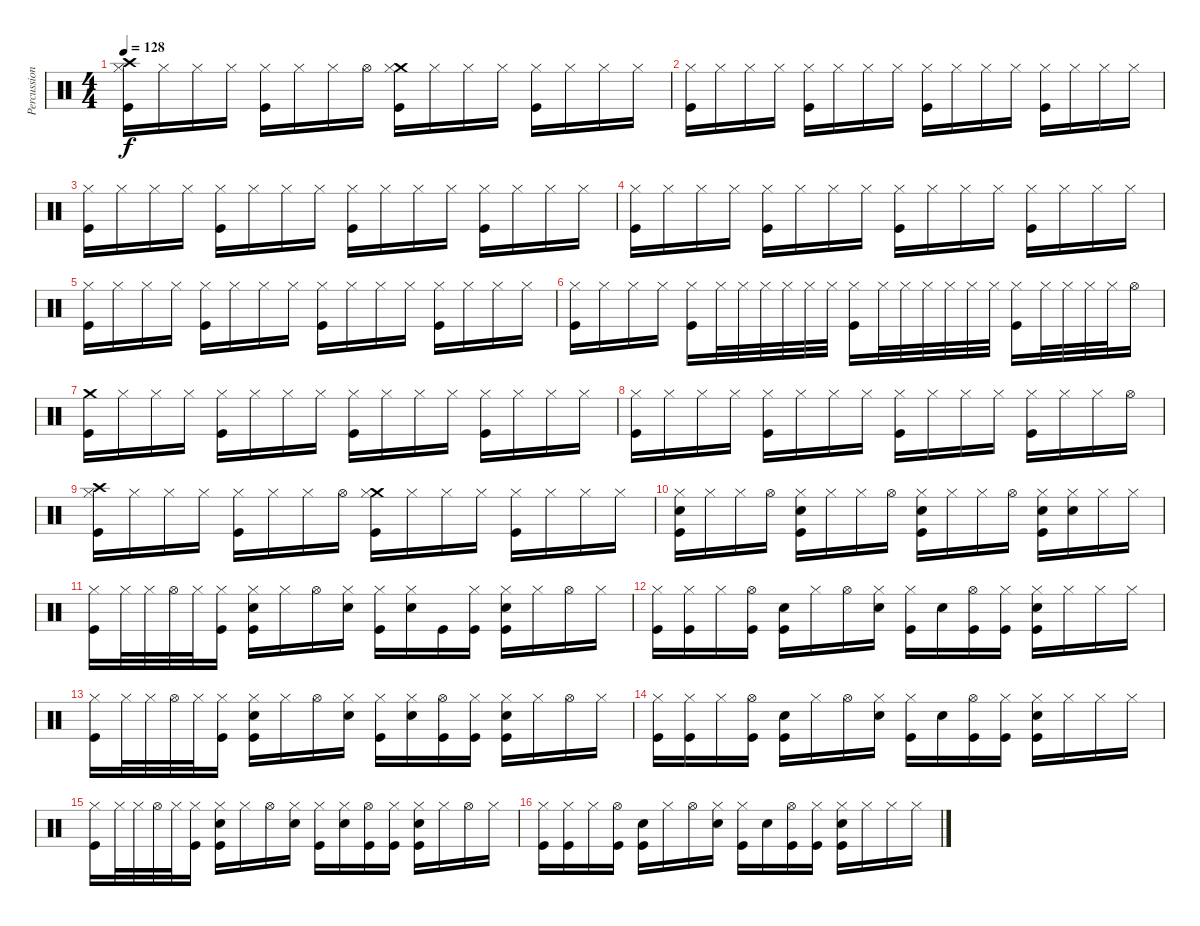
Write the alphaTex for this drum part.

\track ("Percussion" "Percussion") {instrument percussion}
\staff {score}
\articulation defaults
\ts (4 4)
\tempo 128
\clef neutral
\ks c
("Kick (hit)" "Crash high (hit)" "Hi-Hat (closed)").16{dy f} "Hi-Hat (closed)".16 "Hi-Hat (closed)".16 "Hi-Hat (closed)".16 ("Kick (hit)" "Hi-Hat (closed)").16 "Hi-Hat (closed)".16 "Hi-Hat (closed)".16 "Hi-Hat (open)".16 ("Kick (hit)" "Crash medium (hit)" "Hi-Hat (closed)").16 "Hi-Hat (closed)".16 "Hi-Hat (closed)".16 "Hi-Hat (closed)".16 ("Kick (hit)" "Hi-Hat (closed)").16 "Hi-Hat (closed)".16 "Hi-Hat (closed)".16 "Hi-Hat (closed)".16 |
("Kick (hit)" "Hi-Hat (closed)").16 "Hi-Hat (closed)".16 "Hi-Hat (closed)".16 "Hi-Hat (closed)".16 ("Kick (hit)" "Hi-Hat (closed)").16 "Hi-Hat (closed)".16 "Hi-Hat (closed)".16 "Hi-Hat (closed)".16 ("Kick (hit)" "Hi-Hat (closed)").16 "Hi-Hat (closed)".16 "Hi-Hat (closed)".16 "Hi-Hat (closed)".16 ("Kick (hit)" "Hi-Hat (closed)").16 "Hi-Hat (closed)".16 "Hi-Hat (closed)".16 "Hi-Hat (closed)".16 |
("Kick (hit)" "Hi-Hat (closed)").16 "Hi-Hat (closed)".16 "Hi-Hat (closed)".16 "Hi-Hat (closed)".16 ("Kick (hit)" "Hi-Hat (closed)").16 "Hi-Hat (closed)".16 "Hi-Hat (closed)".16 "Hi-Hat (closed)".16 ("Kick (hit)" "Hi-Hat (closed)").16 "Hi-Hat (closed)".16 "Hi-Hat (closed)".16 "Hi-Hat (closed)".16 ("Kick (hit)" "Hi-Hat (closed)").16 "Hi-Hat (closed)".16 "Hi-Hat (closed)".16 "Hi-Hat (closed)".16 |
("Kick (hit)" "Hi-Hat (closed)").16 "Hi-Hat (closed)".16 "Hi-Hat (closed)".16 "Hi-Hat (closed)".16 ("Kick (hit)" "Hi-Hat (closed)").16 "Hi-Hat (closed)".16 "Hi-Hat (closed)".16 "Hi-Hat (closed)".16 ("Kick (hit)" "Hi-Hat (closed)").16 "Hi-Hat (closed)".16 "Hi-Hat (closed)".16 "Hi-Hat (closed)".16 ("Kick (hit)" "Hi-Hat (closed)").16 "Hi-Hat (closed)".16 "Hi-Hat (closed)".16 "Hi-Hat (closed)".16 |
("Kick (hit)" "Hi-Hat (closed)").16 "Hi-Hat (closed)".16 "Hi-Hat (closed)".16 "Hi-Hat (closed)".16 ("Kick (hit)" "Hi-Hat (closed)").16 "Hi-Hat (closed)".16 "Hi-Hat (closed)".16 "Hi-Hat (closed)".16 ("Kick (hit)" "Hi-Hat (closed)").16 "Hi-Hat (closed)".16 "Hi-Hat (closed)".16 "Hi-Hat (closed)".16 ("Kick (hit)" "Hi-Hat (closed)").16 "Hi-Hat (closed)".16 "Hi-Hat (closed)".16 "Hi-Hat (closed)".16 |
("Kick (hit)" "Hi-Hat (closed)").16 "Hi-Hat (closed)".16 "Hi-Hat (closed)".16 "Hi-Hat (closed)".16 ("Kick (hit)" "Hi-Hat (closed)").16 "Hi-Hat (closed)".32 "Hi-Hat (closed)".32 "Hi-Hat (closed)".32 "Hi-Hat (closed)".32 "Hi-Hat (closed)".32 "Hi-Hat (closed)".32 ("Kick (hit)" "Hi-Hat (closed)").16 "Hi-Hat (closed)".32 "Hi-Hat (closed)".32 "Hi-Hat (closed)".32 "Hi-Hat (closed)".32 "Hi-Hat (closed)".32 "Hi-Hat (closed)".32 ("Kick (hit)" "Hi-Hat (closed)").16 "Hi-Hat (closed)".32 "Hi-Hat (closed)".32 "Hi-Hat (closed)".32 "Hi-Hat (closed)".32 "Hi-Hat (open)".16 |
("Kick (hit)" "Crash medium (hit)").16 "Hi-Hat (closed)".16 "Hi-Hat (closed)".16 "Hi-Hat (closed)".16 ("Kick (hit)" "Hi-Hat (closed)").16 "Hi-Hat (closed)".16 "Hi-Hat (closed)".16 "Hi-Hat (closed)".16 ("Kick (hit)" "Hi-Hat (closed)").16 "Hi-Hat (closed)".16 "Hi-Hat (closed)".16 "Hi-Hat (closed)".16 ("Kick (hit)" "Hi-Hat (closed)").16 "Hi-Hat (closed)".16 "Hi-Hat (closed)".16 "Hi-Hat (closed)".16 |
("Kick (hit)" "Hi-Hat (closed)").16 "Hi-Hat (closed)".16 "Hi-Hat (closed)".16 "Hi-Hat (closed)".16 ("Kick (hit)" "Hi-Hat (closed)").16 "Hi-Hat (closed)".16 "Hi-Hat (closed)".16 "Hi-Hat (closed)".16 ("Kick (hit)" "Hi-Hat (closed)").16 "Hi-Hat (closed)".16 "Hi-Hat (closed)".16 "Hi-Hat (closed)".16 ("Kick (hit)" "Hi-Hat (closed)").16 "Hi-Hat (closed)".16 "Hi-Hat (closed)".16 "Hi-Hat (open)".16 |
("Kick (hit)" "Crash high (hit)" "Hi-Hat (closed)").16 "Hi-Hat (closed)".16 "Hi-Hat (closed)".16 "Hi-Hat (closed)".16 ("Kick (hit)" "Hi-Hat (closed)").16 "Hi-Hat (closed)".16 "Hi-Hat (closed)".16 "Hi-Hat (open)".16 ("Kick (hit)" "Crash medium (hit)" "Hi-Hat (closed)").16 "Hi-Hat (closed)".16 "Hi-Hat (closed)".16 "Hi-Hat (closed)".16 ("Kick (hit)" "Hi-Hat (closed)").16 "Hi-Hat (closed)".16 "Hi-Hat (closed)".16 "Hi-Hat (closed)".16 |
("Kick (hit)" "Snare (hit) 2" "Hi-Hat (closed)").16 "Hi-Hat (closed)".16 "Hi-Hat (closed)".16 "Hi-Hat (open)".16 ("Kick (hit)" "Snare (hit) 2" "Hi-Hat (closed)").16 "Hi-Hat (closed)".16 "Hi-Hat (closed)".16 "Hi-Hat (open)".16 ("Kick (hit)" "Snare (hit) 2" "Hi-Hat (closed)").16 "Hi-Hat (closed)".16 "Hi-Hat (closed)".16 "Hi-Hat (open)".16 ("Kick (hit)" "Snare (hit) 2" "Hi-Hat (closed)").16 ("Snare (hit) 2" "Hi-Hat (closed)").16 "Hi-Hat (closed)".16 "Hi-Hat (closed)".16 |
("Kick (hit)" "Hi-Hat (closed)").16 "Hi-Hat (closed)".32 "Hi-Hat (closed)".32 "Hi-Hat (open)".32 "Hi-Hat (closed)".32 ("Kick (hit)" "Hi-Hat (closed)").16 ("Kick (hit)" "Snare (hit) 2" "Hi-Hat (closed)").16 "Hi-Hat (closed)".16 "Hi-Hat (open)".16 ("Snare (hit) 2" "Hi-Hat (closed)").16 ("Kick (hit)" "Hi-Hat (closed)").16 ("Snare (hit) 2" "Hi-Hat (closed)").16 "Kick (hit)".16 ("Kick (hit)" "Hi-Hat (closed)").16 ("Kick (hit)" "Snare (hit) 2" "Hi-Hat (closed)").16 "Hi-Hat (closed)".16 "Hi-Hat (open)".16 "Hi-Hat (closed)".16 |
("Kick (hit)" "Hi-Hat (closed)").16 ("Kick (hit)" "Hi-Hat (closed)").16 "Hi-Hat (closed)".16 ("Kick (hit)" "Hi-Hat (open)").16 ("Kick (hit)" "Snare (hit) 2").16 "Hi-Hat (closed)".16 "Hi-Hat (open)".16 ("Snare (hit) 2" "Hi-Hat (closed)").16 ("Kick (hit)" "Hi-Hat (closed)").16 "Snare (hit) 2".16 ("Kick (hit)" "Hi-Hat (open)").16 ("Kick (hit)" "Hi-Hat (closed)").16 ("Kick (hit)" "Snare (hit) 2" "Hi-Hat (closed)").16 "Hi-Hat (closed)".16 "Hi-Hat (closed)".16 "Hi-Hat (closed)".16 |
("Kick (hit)" "Hi-Hat (closed)").16 "Hi-Hat (closed)".32 "Hi-Hat (closed)".32 "Hi-Hat (open)".32 "Hi-Hat (closed)".32 ("Kick (hit)" "Hi-Hat (closed)").16 ("Kick (hit)" "Snare (hit) 2" "Hi-Hat (closed)").16 "Hi-Hat (closed)".16 "Hi-Hat (open)".16 ("Snare (hit) 2" "Hi-Hat (closed)").16 ("Kick (hit)" "Hi-Hat (closed)").16 ("Snare (hit) 2" "Hi-Hat (closed)").16 ("Kick (hit)" "Hi-Hat (open)").16 ("Kick (hit)" "Hi-Hat (closed)").16 ("Kick (hit)" "Snare (hit) 2" "Hi-Hat (closed)").16 "Hi-Hat (closed)".16 "Hi-Hat (open)".16 "Hi-Hat (closed)".16 |
("Kick (hit)" "Hi-Hat (closed)").16 ("Kick (hit)" "Hi-Hat (closed)").16 "Hi-Hat (closed)".16 ("Kick (hit)" "Hi-Hat (open)").16 ("Kick (hit)" "Snare (hit) 2").16 "Hi-Hat (closed)".16 "Hi-Hat (open)".16 ("Snare (hit) 2" "Hi-Hat (closed)").16 ("Kick (hit)" "Hi-Hat (closed)").16 "Snare (hit) 2".16 ("Kick (hit)" "Hi-Hat (open)").16 ("Kick (hit)" "Hi-Hat (closed)").16 ("Kick (hit)" "Snare (hit) 2" "Hi-Hat (closed)").16 "Hi-Hat (closed)".16 "Hi-Hat (closed)".16 "Hi-Hat (closed)".16 |
("Kick (hit)" "Hi-Hat (closed)").16 "Hi-Hat (closed)".32 "Hi-Hat (closed)".32 "Hi-Hat (open)".32 "Hi-Hat (closed)".32 ("Kick (hit)" "Hi-Hat (closed)").16 ("Kick (hit)" "Snare (hit) 2" "Hi-Hat (closed)").16 "Hi-Hat (closed)".16 "Hi-Hat (open)".16 ("Snare (hit) 2" "Hi-Hat (closed)").16 ("Kick (hit)" "Hi-Hat (closed)").16 ("Snare (hit) 2" "Hi-Hat (closed)").16 ("Kick (hit)" "Hi-Hat (open)").16 ("Kick (hit)" "Hi-Hat (closed)").16 ("Kick (hit)" "Snare (hit) 2" "Hi-Hat (closed)").16 "Hi-Hat (closed)".16 "Hi-Hat (open)".16 "Hi-Hat (closed)".16 |
("Kick (hit)" "Hi-Hat (closed)").16 ("Kick (hit)" "Hi-Hat (closed)").16 "Hi-Hat (closed)".16 ("Kick (hit)" "Hi-Hat (open)").16 ("Kick (hit)" "Snare (hit) 2").16 "Hi-Hat (closed)".16 "Hi-Hat (open)".16 ("Snare (hit) 2" "Hi-Hat (closed)").16 ("Kick (hit)" "Hi-Hat (closed)").16 "Snare (hit) 2".16 ("Kick (hit)" "Hi-Hat (open)").16 ("Kick (hit)" "Hi-Hat (closed)").16 ("Kick (hit)" "Snare (hit) 2" "Hi-Hat (closed)").16 "Hi-Hat (closed)".16 "Hi-Hat (closed)".16 "Hi-Hat (closed)".16
